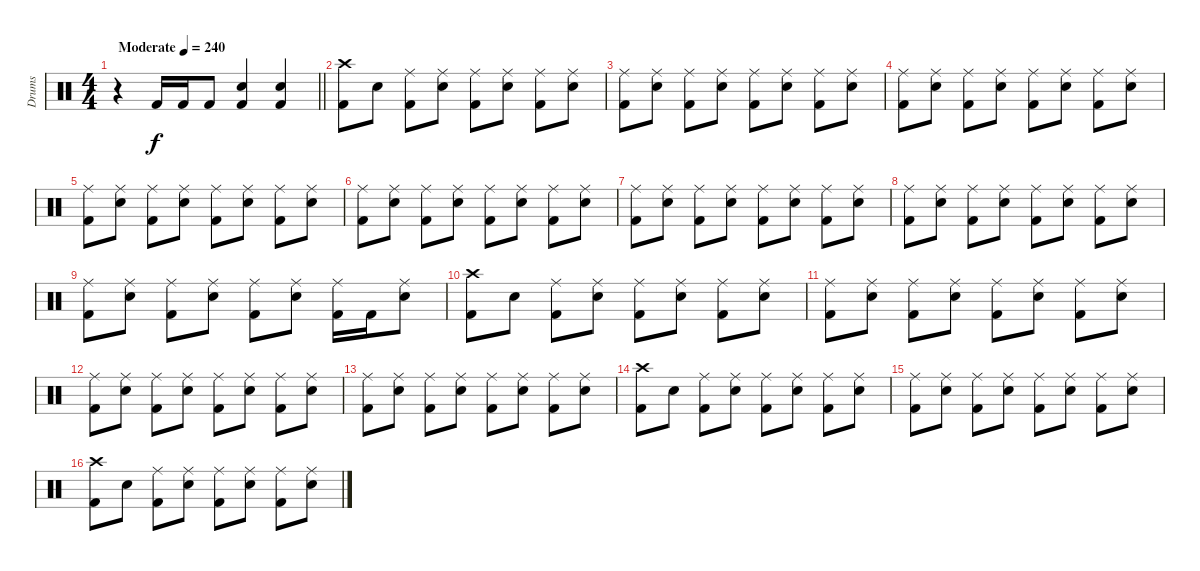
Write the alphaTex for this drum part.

\track ("Drums" "Drums") {instrument percussion}
\staff {score}
\articulation defaults
\ts (4 4)
\tempo (240 "Moderate")
\clef neutral
\barLineRight lightlight
\ks c
r.4{dy f} "Kick (hit) 2".16 "Kick (hit) 2".16 "Kick (hit) 2".8 ("Electric Snare (hit)" "Kick (hit) 2").4 ("Electric Snare (hit)" "Kick (hit) 2").4 |
("Crash high (hit)" "Kick (hit) 2").8 "Electric Snare (hit)".8 ("Ride (middle)" "Kick (hit) 2").8 ("Ride (middle)" "Electric Snare (hit)").8 ("Ride (middle)" "Kick (hit) 2").8 ("Ride (middle)" "Electric Snare (hit)").8 ("Ride (middle)" "Kick (hit) 2").8 ("Ride (middle)" "Electric Snare (hit)").8 |
("Ride (middle)" "Kick (hit) 2").8 ("Ride (middle)" "Electric Snare (hit)").8 ("Ride (middle)" "Kick (hit) 2").8 ("Ride (middle)" "Electric Snare (hit)").8 ("Ride (middle)" "Kick (hit) 2").8 ("Ride (middle)" "Electric Snare (hit)").8 ("Ride (middle)" "Kick (hit) 2").8 ("Ride (middle)" "Electric Snare (hit)").8 |
("Ride (middle)" "Kick (hit) 2").8 ("Ride (middle)" "Electric Snare (hit)").8 ("Ride (middle)" "Kick (hit) 2").8 ("Ride (middle)" "Electric Snare (hit)").8 ("Ride (middle)" "Kick (hit) 2").8 ("Ride (middle)" "Electric Snare (hit)").8 ("Ride (middle)" "Kick (hit) 2").8 ("Ride (middle)" "Electric Snare (hit)").8 |
("Ride (middle)" "Kick (hit) 2").8 ("Ride (middle)" "Electric Snare (hit)").8 ("Ride (middle)" "Kick (hit) 2").8 ("Ride (middle)" "Electric Snare (hit)").8 ("Ride (middle)" "Kick (hit) 2").8 ("Ride (middle)" "Electric Snare (hit)").8 ("Ride (middle)" "Kick (hit) 2").8 ("Ride (middle)" "Electric Snare (hit)").8 |
("Ride (middle)" "Kick (hit) 2").8 ("Ride (middle)" "Electric Snare (hit)").8 ("Ride (middle)" "Kick (hit) 2").8 ("Ride (middle)" "Electric Snare (hit)").8 ("Ride (middle)" "Kick (hit) 2").8 ("Ride (middle)" "Electric Snare (hit)").8 ("Ride (middle)" "Kick (hit) 2").8 ("Ride (middle)" "Electric Snare (hit)").8 |
("Ride (middle)" "Kick (hit) 2").8 ("Ride (middle)" "Electric Snare (hit)").8 ("Ride (middle)" "Kick (hit) 2").8 ("Ride (middle)" "Electric Snare (hit)").8 ("Ride (middle)" "Kick (hit) 2").8 ("Ride (middle)" "Electric Snare (hit)").8 ("Ride (middle)" "Kick (hit) 2").8 ("Ride (middle)" "Electric Snare (hit)").8 |
("Ride (middle)" "Kick (hit) 2").8 ("Ride (middle)" "Electric Snare (hit)").8 ("Ride (middle)" "Kick (hit) 2").8 ("Ride (middle)" "Electric Snare (hit)").8 ("Ride (middle)" "Kick (hit) 2").8 ("Ride (middle)" "Electric Snare (hit)").8 ("Ride (middle)" "Kick (hit) 2").8 ("Ride (middle)" "Electric Snare (hit)").8 |
("Ride (middle)" "Kick (hit) 2").8 ("Ride (middle)" "Electric Snare (hit)").8 ("Ride (middle)" "Kick (hit) 2").8 ("Ride (middle)" "Electric Snare (hit)").8 ("Ride (middle)" "Kick (hit) 2").8 ("Ride (middle)" "Electric Snare (hit)").8 ("Ride (middle)" "Kick (hit) 2").16 "Kick (hit) 2".16 ("Ride (middle)" "Electric Snare (hit)").8 |
("Crash high (hit)" "Kick (hit) 2").8 "Electric Snare (hit)".8 ("Ride (middle)" "Kick (hit) 2").8 ("Ride (middle)" "Electric Snare (hit)").8 ("Ride (middle)" "Kick (hit) 2").8 ("Ride (middle)" "Electric Snare (hit)").8 ("Ride (middle)" "Kick (hit) 2").8 ("Ride (middle)" "Electric Snare (hit)").8 |
("Ride (middle)" "Kick (hit) 2").8 ("Ride (middle)" "Electric Snare (hit)").8 ("Ride (middle)" "Kick (hit) 2").8 ("Ride (middle)" "Electric Snare (hit)").8 ("Ride (middle)" "Kick (hit) 2").8 ("Ride (middle)" "Electric Snare (hit)").8 ("Ride (middle)" "Kick (hit) 2").8 ("Ride (middle)" "Electric Snare (hit)").8 |
("Ride (middle)" "Kick (hit) 2").8 ("Ride (middle)" "Electric Snare (hit)").8 ("Ride (middle)" "Kick (hit) 2").8 ("Ride (middle)" "Electric Snare (hit)").8 ("Ride (middle)" "Kick (hit) 2").8 ("Ride (middle)" "Electric Snare (hit)").8 ("Ride (middle)" "Kick (hit) 2").8 ("Ride (middle)" "Electric Snare (hit)").8 |
("Ride (middle)" "Kick (hit) 2").8 ("Ride (middle)" "Electric Snare (hit)").8 ("Ride (middle)" "Kick (hit) 2").8 ("Ride (middle)" "Electric Snare (hit)").8 ("Ride (middle)" "Kick (hit) 2").8 ("Ride (middle)" "Electric Snare (hit)").8 ("Ride (middle)" "Kick (hit) 2").8 ("Ride (middle)" "Electric Snare (hit)").8 |
("Crash high (hit)" "Kick (hit) 2").8 "Electric Snare (hit)".8 ("Ride (middle)" "Kick (hit) 2").8 ("Ride (middle)" "Electric Snare (hit)").8 ("Ride (middle)" "Kick (hit) 2").8 ("Ride (middle)" "Electric Snare (hit)").8 ("Ride (middle)" "Kick (hit) 2").8 ("Ride (middle)" "Electric Snare (hit)").8 |
("Ride (middle)" "Kick (hit) 2").8 ("Ride (middle)" "Electric Snare (hit)").8 ("Ride (middle)" "Kick (hit) 2").8 ("Ride (middle)" "Electric Snare (hit)").8 ("Ride (middle)" "Kick (hit) 2").8 ("Ride (middle)" "Electric Snare (hit)").8 ("Ride (middle)" "Kick (hit) 2").8 ("Ride (middle)" "Electric Snare (hit)").8 |
("Crash high (hit)" "Kick (hit) 2").8 "Electric Snare (hit)".8 ("Ride (middle)" "Kick (hit) 2").8 ("Ride (middle)" "Electric Snare (hit)").8 ("Ride (middle)" "Kick (hit) 2").8 ("Ride (middle)" "Electric Snare (hit)").8 ("Ride (middle)" "Kick (hit) 2").8 ("Ride (middle)" "Electric Snare (hit)").8
